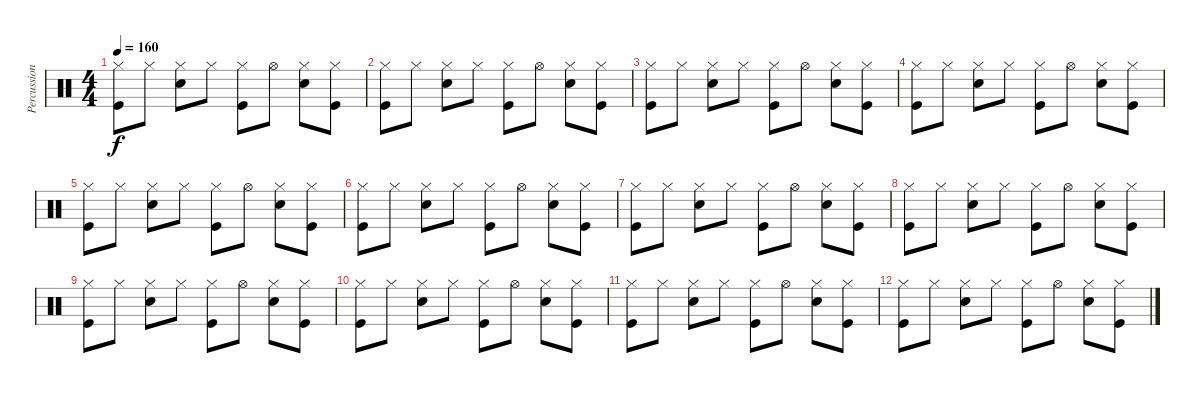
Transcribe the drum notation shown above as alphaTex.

\track ("Percussions" "Percussion") {instrument percussion}
\staff {score}
\articulation defaults
\ts (4 4)
\tempo 160
\clef neutral
\ks c
("Kick (hit)" "Hi-Hat (closed)").8{dy f} "Hi-Hat (closed)".8 ("Snare (hit) 2" "Hi-Hat (closed)").8 "Hi-Hat (closed)".8 ("Kick (hit)" "Hi-Hat (closed)").8 "Hi-Hat (open)".8 ("Snare (hit) 2" "Hi-Hat (closed)").8 ("Kick (hit)" "Hi-Hat (closed)").8 |
("Kick (hit)" "Hi-Hat (closed)").8 "Hi-Hat (closed)".8 ("Snare (hit) 2" "Hi-Hat (closed)").8 "Hi-Hat (closed)".8 ("Kick (hit)" "Hi-Hat (closed)").8 "Hi-Hat (open)".8 ("Snare (hit) 2" "Hi-Hat (closed)").8 ("Kick (hit)" "Hi-Hat (closed)").8 |
("Kick (hit)" "Hi-Hat (closed)").8 "Hi-Hat (closed)".8 ("Snare (hit) 2" "Hi-Hat (closed)").8 "Hi-Hat (closed)".8 ("Kick (hit)" "Hi-Hat (closed)").8 "Hi-Hat (open)".8 ("Snare (hit) 2" "Hi-Hat (closed)").8 ("Kick (hit)" "Hi-Hat (closed)").8 |
("Kick (hit)" "Hi-Hat (closed)").8 "Hi-Hat (closed)".8 ("Snare (hit) 2" "Hi-Hat (closed)").8 "Hi-Hat (closed)".8 ("Kick (hit)" "Hi-Hat (closed)").8 "Hi-Hat (open)".8 ("Snare (hit) 2" "Hi-Hat (closed)").8 ("Kick (hit)" "Hi-Hat (closed)").8 |
("Kick (hit)" "Hi-Hat (closed)").8 "Hi-Hat (closed)".8 ("Snare (hit) 2" "Hi-Hat (closed)").8 "Hi-Hat (closed)".8 ("Kick (hit)" "Hi-Hat (closed)").8 "Hi-Hat (open)".8 ("Snare (hit) 2" "Hi-Hat (closed)").8 ("Kick (hit)" "Hi-Hat (closed)").8 |
("Kick (hit)" "Hi-Hat (closed)").8 "Hi-Hat (closed)".8 ("Snare (hit) 2" "Hi-Hat (closed)").8 "Hi-Hat (closed)".8 ("Kick (hit)" "Hi-Hat (closed)").8 "Hi-Hat (open)".8 ("Snare (hit) 2" "Hi-Hat (closed)").8 ("Kick (hit)" "Hi-Hat (closed)").8 |
("Kick (hit)" "Hi-Hat (closed)").8 "Hi-Hat (closed)".8 ("Snare (hit) 2" "Hi-Hat (closed)").8 "Hi-Hat (closed)".8 ("Kick (hit)" "Hi-Hat (closed)").8 "Hi-Hat (open)".8 ("Snare (hit) 2" "Hi-Hat (closed)").8 ("Kick (hit)" "Hi-Hat (closed)").8 |
("Kick (hit)" "Hi-Hat (closed)").8 "Hi-Hat (closed)".8 ("Snare (hit) 2" "Hi-Hat (closed)").8 "Hi-Hat (closed)".8 ("Kick (hit)" "Hi-Hat (closed)").8 "Hi-Hat (open)".8 ("Snare (hit) 2" "Hi-Hat (closed)").8 ("Kick (hit)" "Hi-Hat (closed)").8 |
("Kick (hit)" "Hi-Hat (closed)").8 "Hi-Hat (closed)".8 ("Snare (hit) 2" "Hi-Hat (closed)").8 "Hi-Hat (closed)".8 ("Kick (hit)" "Hi-Hat (closed)").8 "Hi-Hat (open)".8 ("Snare (hit) 2" "Hi-Hat (closed)").8 ("Kick (hit)" "Hi-Hat (closed)").8 |
("Kick (hit)" "Hi-Hat (closed)").8 "Hi-Hat (closed)".8 ("Snare (hit) 2" "Hi-Hat (closed)").8 "Hi-Hat (closed)".8 ("Kick (hit)" "Hi-Hat (closed)").8 "Hi-Hat (open)".8 ("Snare (hit) 2" "Hi-Hat (closed)").8 ("Kick (hit)" "Hi-Hat (closed)").8 |
("Kick (hit)" "Hi-Hat (closed)").8 "Hi-Hat (closed)".8 ("Snare (hit) 2" "Hi-Hat (closed)").8 "Hi-Hat (closed)".8 ("Kick (hit)" "Hi-Hat (closed)").8 "Hi-Hat (open)".8 ("Snare (hit) 2" "Hi-Hat (closed)").8 ("Kick (hit)" "Hi-Hat (closed)").8 |
("Kick (hit)" "Hi-Hat (closed)").8 "Hi-Hat (closed)".8 ("Snare (hit) 2" "Hi-Hat (closed)").8 "Hi-Hat (closed)".8 ("Kick (hit)" "Hi-Hat (closed)").8 "Hi-Hat (open)".8 ("Snare (hit) 2" "Hi-Hat (closed)").8 ("Kick (hit)" "Hi-Hat (closed)").8
